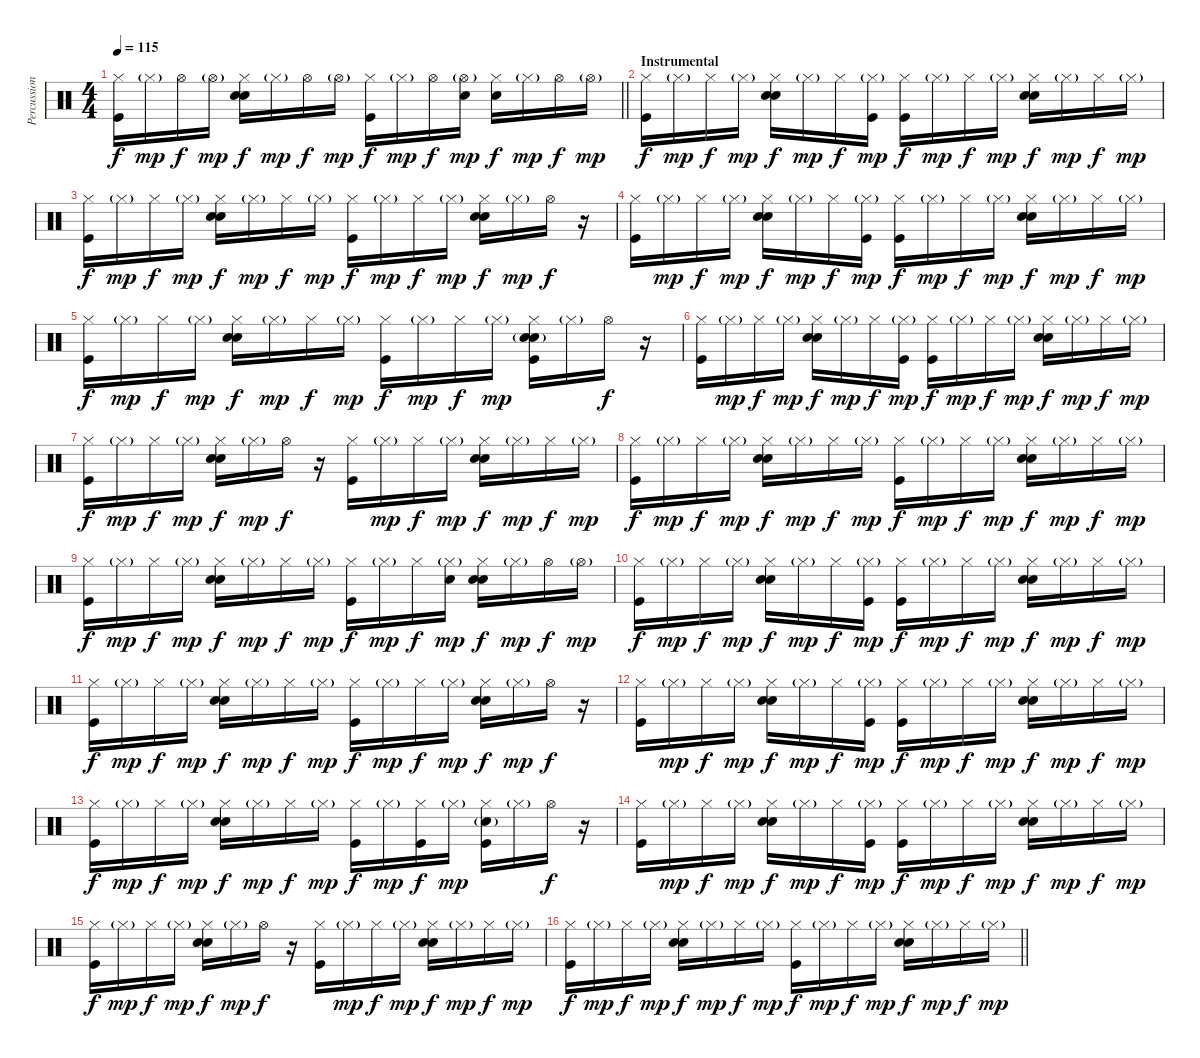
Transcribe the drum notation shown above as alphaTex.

\track ("Percussion" "Percussion") {instrument percussion bank 177}
\staff {score}
\articulation defaults
\ts (4 4)
\tempo 115
\clef neutral
\barLineRight lightlight
\ks c
("Hi-Hat (closed)" "Kick (hit)").16{dy f} "Hi-Hat (closed)"{g}.16{dy mp} "Hi-Hat (open)".16{dy f} "Hi-Hat (open)"{g}.16{dy mp} ("Hi-Hat (closed)" "Hand Clap (hit)" "Snare (hit) 2").16{dy f} "Hi-Hat (closed)"{g}.16{dy mp} "Hi-Hat (open)".16{dy f} "Hi-Hat (open)"{g}.16{dy mp} ("Hi-Hat (closed)" "Kick (hit)").16{dy f} "Hi-Hat (closed)"{g}.16{dy mp} "Hi-Hat (open)".16{dy f} ("Hi-Hat (open)"{g} "Snare (hit) 2").16{dy mp} ("Hi-Hat (closed)" "Snare (hit) 2").16{dy f} "Hi-Hat (closed)"{g}.16{dy mp} "Hi-Hat (open)".16{dy f} "Hi-Hat (open)"{g}.16{dy mp} |
\section ("" "Instrumental")
("Hi-Hat (closed)" "Kick (hit)").16{dy f} "Hi-Hat (closed)"{g}.16{dy mp} "Hi-Hat (closed)".16{dy f} "Hi-Hat (closed)"{g}.16{dy mp} ("Hi-Hat (closed)" "Hand Clap (hit)" "Snare (hit) 2").16{dy f} "Hi-Hat (closed)"{g}.16{dy mp} "Hi-Hat (closed)".16{dy f} ("Hi-Hat (closed)"{g} "Kick (hit)").16{dy mp} ("Hi-Hat (closed)" "Kick (hit)").16{dy f} "Hi-Hat (closed)"{g}.16{dy mp} "Hi-Hat (closed)".16{dy f} "Hi-Hat (closed)"{g}.16{dy mp} ("Hi-Hat (closed)" "Hand Clap (hit)" "Snare (hit) 2").16{dy f} "Hi-Hat (closed)"{g}.16{dy mp} "Hi-Hat (closed)".16{dy f} "Hi-Hat (closed)"{g}.16{dy mp} |
("Hi-Hat (closed)" "Kick (hit)").16{dy f} "Hi-Hat (closed)"{g}.16{dy mp} "Hi-Hat (closed)".16{dy f} "Hi-Hat (closed)"{g}.16{dy mp} ("Hi-Hat (closed)" "Hand Clap (hit)" "Snare (hit) 2").16{dy f} "Hi-Hat (closed)"{g}.16{dy mp} "Hi-Hat (closed)".16{dy f} "Hi-Hat (closed)"{g}.16{dy mp} ("Hi-Hat (closed)" "Kick (hit)").16{dy f} "Hi-Hat (closed)"{g}.16{dy mp} "Hi-Hat (closed)".16{dy f} "Hi-Hat (closed)"{g}.16{dy mp} ("Hi-Hat (closed)" "Hand Clap (hit)" "Snare (hit) 2").16{dy f} "Hi-Hat (closed)"{g}.16{dy mp} "Hi-Hat (open)".16{dy f} r.16 |
("Hi-Hat (closed)" "Kick (hit)").16 "Hi-Hat (closed)"{g}.16{dy mp} "Hi-Hat (closed)".16{dy f} "Hi-Hat (closed)"{g}.16{dy mp} ("Hi-Hat (closed)" "Hand Clap (hit)" "Snare (hit) 2").16{dy f} "Hi-Hat (closed)"{g}.16{dy mp} "Hi-Hat (closed)".16{dy f} ("Hi-Hat (closed)"{g} "Kick (hit)").16{dy mp} ("Hi-Hat (closed)" "Kick (hit)").16{dy f} "Hi-Hat (closed)"{g}.16{dy mp} "Hi-Hat (closed)".16{dy f} "Hi-Hat (closed)"{g}.16{dy mp} ("Hi-Hat (closed)" "Hand Clap (hit)" "Snare (hit) 2").16{dy f} "Hi-Hat (closed)"{g}.16{dy mp} "Hi-Hat (closed)".16{dy f} "Hi-Hat (closed)"{g}.16{dy mp} |
("Hi-Hat (closed)" "Kick (hit)").16{dy f} "Hi-Hat (closed)"{g}.16{dy mp} "Hi-Hat (closed)".16{dy f} "Hi-Hat (closed)"{g}.16{dy mp} ("Hi-Hat (closed)" "Hand Clap (hit)" "Snare (hit) 2").16{dy f} "Hi-Hat (closed)"{g}.16{dy mp} "Hi-Hat (closed)".16{dy f} "Hi-Hat (closed)"{g}.16{dy mp} ("Hi-Hat (closed)" "Kick (hit)").16{dy f} "Hi-Hat (closed)"{g}.16{dy mp} "Hi-Hat (closed)".16{dy f} "Hi-Hat (closed)"{g}.16{dy mp} ("Hi-Hat (closed)" "Hand Clap (hit)" "Snare (hit) 2"{g} "Kick (hit)").16 "Hi-Hat (closed)"{g}.16 "Hi-Hat (open)".16{dy f} r.16 |
("Hi-Hat (closed)" "Kick (hit)").16 "Hi-Hat (closed)"{g}.16{dy mp} "Hi-Hat (closed)".16{dy f} "Hi-Hat (closed)"{g}.16{dy mp} ("Hi-Hat (closed)" "Hand Clap (hit)" "Snare (hit) 2").16{dy f} "Hi-Hat (closed)"{g}.16{dy mp} "Hi-Hat (closed)".16{dy f} ("Hi-Hat (closed)"{g} "Kick (hit)").16{dy mp} ("Hi-Hat (closed)" "Kick (hit)").16{dy f} "Hi-Hat (closed)"{g}.16{dy mp} "Hi-Hat (closed)".16{dy f} "Hi-Hat (closed)"{g}.16{dy mp} ("Hi-Hat (closed)" "Hand Clap (hit)" "Snare (hit) 2").16{dy f} "Hi-Hat (closed)"{g}.16{dy mp} "Hi-Hat (closed)".16{dy f} "Hi-Hat (closed)"{g}.16{dy mp} |
("Hi-Hat (closed)" "Kick (hit)").16{dy f} "Hi-Hat (closed)"{g}.16{dy mp} "Hi-Hat (closed)".16{dy f} "Hi-Hat (closed)"{g}.16{dy mp} ("Hi-Hat (closed)" "Hand Clap (hit)" "Snare (hit) 2").16{dy f} "Hi-Hat (closed)"{g}.16{dy mp} "Hi-Hat (open)".16{dy f} r.16 ("Hi-Hat (closed)" "Kick (hit)").16 "Hi-Hat (closed)"{g}.16{dy mp} "Hi-Hat (closed)".16{dy f} "Hi-Hat (closed)"{g}.16{dy mp} ("Hi-Hat (closed)" "Hand Clap (hit)" "Snare (hit) 2").16{dy f} "Hi-Hat (closed)"{g}.16{dy mp} "Hi-Hat (closed)".16{dy f} "Hi-Hat (closed)"{g}.16{dy mp} |
("Hi-Hat (closed)" "Kick (hit)").16{dy f} "Hi-Hat (closed)"{g}.16{dy mp} "Hi-Hat (closed)".16{dy f} "Hi-Hat (closed)"{g}.16{dy mp} ("Hi-Hat (closed)" "Hand Clap (hit)" "Snare (hit) 2").16{dy f} "Hi-Hat (closed)"{g}.16{dy mp} "Hi-Hat (closed)".16{dy f} "Hi-Hat (closed)"{g}.16{dy mp} ("Hi-Hat (closed)" "Kick (hit)").16{dy f} "Hi-Hat (closed)"{g}.16{dy mp} "Hi-Hat (closed)".16{dy f} "Hi-Hat (closed)"{g}.16{dy mp} ("Hi-Hat (closed)" "Hand Clap (hit)" "Snare (hit) 2").16{dy f} "Hi-Hat (closed)"{g}.16{dy mp} "Hi-Hat (closed)".16{dy f} "Hi-Hat (closed)"{g}.16{dy mp} |
("Hi-Hat (closed)" "Kick (hit)").16{dy f} "Hi-Hat (closed)"{g}.16{dy mp} "Hi-Hat (closed)".16{dy f} "Hi-Hat (closed)"{g}.16{dy mp} ("Hi-Hat (closed)" "Hand Clap (hit)" "Snare (hit) 2").16{dy f} "Hi-Hat (closed)"{g}.16{dy mp} "Hi-Hat (closed)".16{dy f} "Hi-Hat (closed)"{g}.16{dy mp} ("Hi-Hat (closed)" "Kick (hit)").16{dy f} "Hi-Hat (closed)"{g}.16{dy mp} "Hi-Hat (closed)".16{dy f} ("Hi-Hat (closed)"{g} "Snare (hit) 2").16{dy mp} ("Hi-Hat (closed)" "Hand Clap (hit)" "Snare (hit) 2").16{dy f} "Hi-Hat (closed)"{g}.16{dy mp} "Hi-Hat (open)".16{dy f} "Hi-Hat (open)"{g}.16{dy mp} |
("Hi-Hat (closed)" "Kick (hit)").16{dy f} "Hi-Hat (closed)"{g}.16{dy mp} "Hi-Hat (closed)".16{dy f} "Hi-Hat (closed)"{g}.16{dy mp} ("Hi-Hat (closed)" "Hand Clap (hit)" "Snare (hit) 2").16{dy f} "Hi-Hat (closed)"{g}.16{dy mp} "Hi-Hat (closed)".16{dy f} ("Hi-Hat (closed)"{g} "Kick (hit)").16{dy mp} ("Hi-Hat (closed)" "Kick (hit)").16{dy f} "Hi-Hat (closed)"{g}.16{dy mp} "Hi-Hat (closed)".16{dy f} "Hi-Hat (closed)"{g}.16{dy mp} ("Hi-Hat (closed)" "Hand Clap (hit)" "Snare (hit) 2").16{dy f} "Hi-Hat (closed)"{g}.16{dy mp} "Hi-Hat (closed)".16{dy f} "Hi-Hat (closed)"{g}.16{dy mp} |
("Hi-Hat (closed)" "Kick (hit)").16{dy f} "Hi-Hat (closed)"{g}.16{dy mp} "Hi-Hat (closed)".16{dy f} "Hi-Hat (closed)"{g}.16{dy mp} ("Hi-Hat (closed)" "Hand Clap (hit)" "Snare (hit) 2").16{dy f} "Hi-Hat (closed)"{g}.16{dy mp} "Hi-Hat (closed)".16{dy f} "Hi-Hat (closed)"{g}.16{dy mp} ("Hi-Hat (closed)" "Kick (hit)").16{dy f} "Hi-Hat (closed)"{g}.16{dy mp} "Hi-Hat (closed)".16{dy f} "Hi-Hat (closed)"{g}.16{dy mp} ("Hi-Hat (closed)" "Hand Clap (hit)" "Snare (hit) 2").16{dy f} "Hi-Hat (closed)"{g}.16{dy mp} "Hi-Hat (open)".16{dy f} r.16 |
("Hi-Hat (closed)" "Kick (hit)").16 "Hi-Hat (closed)"{g}.16{dy mp} "Hi-Hat (closed)".16{dy f} "Hi-Hat (closed)"{g}.16{dy mp} ("Hi-Hat (closed)" "Hand Clap (hit)" "Snare (hit) 2").16{dy f} "Hi-Hat (closed)"{g}.16{dy mp} "Hi-Hat (closed)".16{dy f} ("Hi-Hat (closed)"{g} "Kick (hit)").16{dy mp} ("Hi-Hat (closed)" "Kick (hit)").16{dy f} "Hi-Hat (closed)"{g}.16{dy mp} "Hi-Hat (closed)".16{dy f} "Hi-Hat (closed)"{g}.16{dy mp} ("Hi-Hat (closed)" "Hand Clap (hit)" "Snare (hit) 2").16{dy f} "Hi-Hat (closed)"{g}.16{dy mp} "Hi-Hat (closed)".16{dy f} "Hi-Hat (closed)"{g}.16{dy mp} |
("Hi-Hat (closed)" "Kick (hit)").16{dy f} "Hi-Hat (closed)"{g}.16{dy mp} "Hi-Hat (closed)".16{dy f} "Hi-Hat (closed)"{g}.16{dy mp} ("Hi-Hat (closed)" "Hand Clap (hit)" "Snare (hit) 2").16{dy f} "Hi-Hat (closed)"{g}.16{dy mp} "Hi-Hat (closed)".16{dy f} "Hi-Hat (closed)"{g}.16{dy mp} ("Hi-Hat (closed)" "Kick (hit)").16{dy f} "Hi-Hat (closed)"{g}.16{dy mp} ("Hi-Hat (closed)" "Kick (hit)").16{dy f} "Hi-Hat (closed)"{g}.16{dy mp} ("Hi-Hat (closed)" "Snare (hit) 2"{g} "Kick (hit)").16 "Hi-Hat (closed)"{g}.16 "Hi-Hat (open)".16{dy f} r.16 |
("Hi-Hat (closed)" "Kick (hit)").16 "Hi-Hat (closed)"{g}.16{dy mp} "Hi-Hat (closed)".16{dy f} "Hi-Hat (closed)"{g}.16{dy mp} ("Hi-Hat (closed)" "Hand Clap (hit)" "Snare (hit) 2").16{dy f} "Hi-Hat (closed)"{g}.16{dy mp} "Hi-Hat (closed)".16{dy f} ("Hi-Hat (closed)"{g} "Kick (hit)").16{dy mp} ("Hi-Hat (closed)" "Kick (hit)").16{dy f} "Hi-Hat (closed)"{g}.16{dy mp} "Hi-Hat (closed)".16{dy f} "Hi-Hat (closed)"{g}.16{dy mp} ("Hi-Hat (closed)" "Hand Clap (hit)" "Snare (hit) 2").16{dy f} "Hi-Hat (closed)"{g}.16{dy mp} "Hi-Hat (closed)".16{dy f} "Hi-Hat (closed)"{g}.16{dy mp} |
("Hi-Hat (closed)" "Kick (hit)").16{dy f} "Hi-Hat (closed)"{g}.16{dy mp} "Hi-Hat (closed)".16{dy f} "Hi-Hat (closed)"{g}.16{dy mp} ("Hi-Hat (closed)" "Hand Clap (hit)" "Snare (hit) 2").16{dy f} "Hi-Hat (closed)"{g}.16{dy mp} "Hi-Hat (open)".16{dy f} r.16 ("Hi-Hat (closed)" "Kick (hit)").16 "Hi-Hat (closed)"{g}.16{dy mp} "Hi-Hat (closed)".16{dy f} "Hi-Hat (closed)"{g}.16{dy mp} ("Hi-Hat (closed)" "Hand Clap (hit)" "Snare (hit) 2").16{dy f} "Hi-Hat (closed)"{g}.16{dy mp} "Hi-Hat (closed)".16{dy f} "Hi-Hat (closed)"{g}.16{dy mp} |
\barLineRight lightlight
("Hi-Hat (closed)" "Kick (hit)").16{dy f} "Hi-Hat (closed)"{g}.16{dy mp} "Hi-Hat (closed)".16{dy f} "Hi-Hat (closed)"{g}.16{dy mp} ("Hi-Hat (closed)" "Hand Clap (hit)" "Snare (hit) 2").16{dy f} "Hi-Hat (closed)"{g}.16{dy mp} "Hi-Hat (closed)".16{dy f} "Hi-Hat (closed)"{g}.16{dy mp} ("Hi-Hat (closed)" "Kick (hit)").16{dy f} "Hi-Hat (closed)"{g}.16{dy mp} "Hi-Hat (closed)".16{dy f} "Hi-Hat (closed)"{g}.16{dy mp} ("Hi-Hat (closed)" "Hand Clap (hit)" "Snare (hit) 2").16{dy f} "Hi-Hat (closed)"{g}.16{dy mp} "Hi-Hat (closed)".16{dy f} "Hi-Hat (closed)"{g}.16{dy mp}
